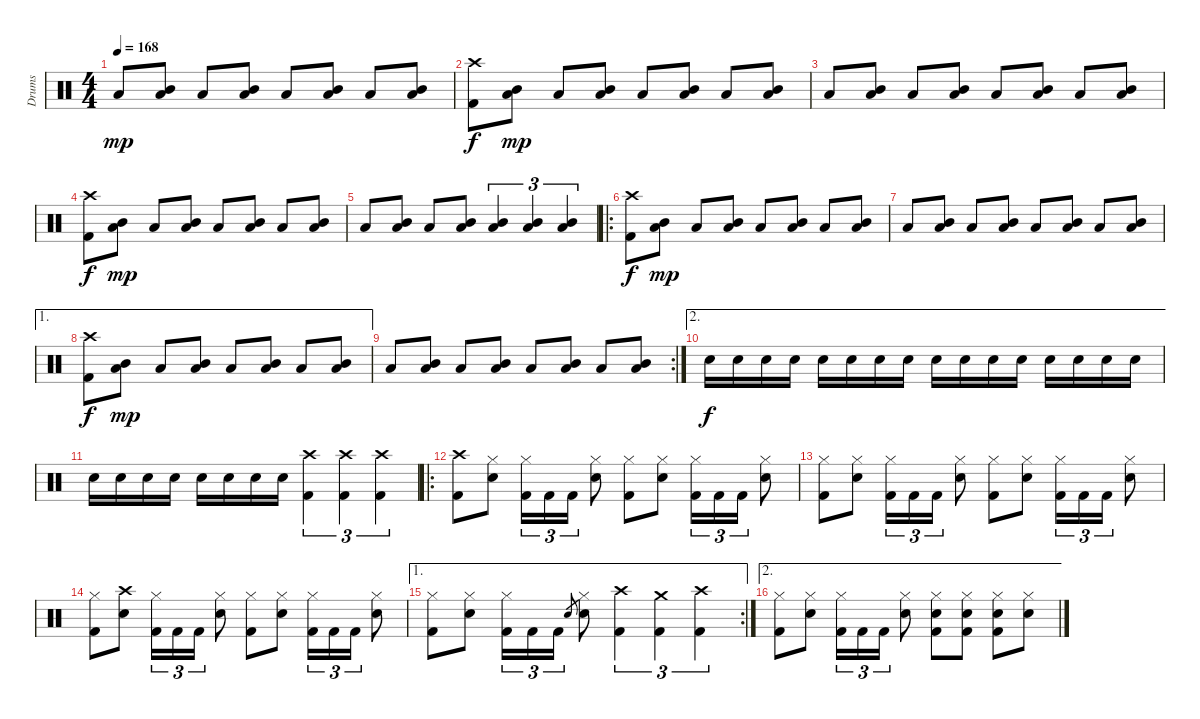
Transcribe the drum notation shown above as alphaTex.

\track ("Drums" "Drums") {instrument percussion}
\staff {score}
\articulation defaults
\ts (4 4)
\tempo 168
\clef neutral
\ks c "Low Tom (hit)".8{dy mp}
("Mid Tom (hit)" "Low Tom (hit)").8 "Low Tom (hit)".8 ("Mid Tom (hit)" "Low Tom (hit)").8 "Low Tom (hit)".8 ("Mid Tom (hit)" "Low Tom (hit)").8 "Low Tom (hit)".8 ("Mid Tom (hit)" "Low Tom (hit)").8 |
("Crash high (hit)" "Kick (hit) 2").8{dy f} ("Mid Tom (hit)" "Low Tom (hit)").8{dy mp} "Low Tom (hit)".8 ("Mid Tom (hit)" "Low Tom (hit)").8 "Low Tom (hit)".8 ("Mid Tom (hit)" "Low Tom (hit)").8 "Low Tom (hit)".8 ("Mid Tom (hit)" "Low Tom (hit)").8 |
"Low Tom (hit)".8 ("Mid Tom (hit)" "Low Tom (hit)").8 "Low Tom (hit)".8 ("Mid Tom (hit)" "Low Tom (hit)").8 "Low Tom (hit)".8 ("Mid Tom (hit)" "Low Tom (hit)").8 "Low Tom (hit)".8 ("Mid Tom (hit)" "Low Tom (hit)").8 |
("Crash high (hit)" "Kick (hit) 2").8{dy f} ("Mid Tom (hit)" "Low Tom (hit)").8{dy mp} "Low Tom (hit)".8 ("Mid Tom (hit)" "Low Tom (hit)").8 "Low Tom (hit)".8 ("Mid Tom (hit)" "Low Tom (hit)").8 "Low Tom (hit)".8 ("Mid Tom (hit)" "Low Tom (hit)").8 |
"Low Tom (hit)".8 ("Mid Tom (hit)" "Low Tom (hit)").8 "Low Tom (hit)".8 ("Mid Tom (hit)" "Low Tom (hit)").8 ("Mid Tom (hit)" "Low Tom (hit)").4{tu (3 2)} ("Mid Tom (hit)" "Low Tom (hit)").4{tu (3 2)} ("Mid Tom (hit)" "Low Tom (hit)").4{tu (3 2)} |
\ro
("Crash high (hit)" "Kick (hit) 2").8{dy f} ("Mid Tom (hit)" "Low Tom (hit)").8{dy mp} "Low Tom (hit)".8 ("Mid Tom (hit)" "Low Tom (hit)").8 "Low Tom (hit)".8 ("Mid Tom (hit)" "Low Tom (hit)").8 "Low Tom (hit)".8 ("Mid Tom (hit)" "Low Tom (hit)").8 |
"Low Tom (hit)".8 ("Mid Tom (hit)" "Low Tom (hit)").8 "Low Tom (hit)".8 ("Mid Tom (hit)" "Low Tom (hit)").8 "Low Tom (hit)".8 ("Mid Tom (hit)" "Low Tom (hit)").8 "Low Tom (hit)".8 ("Mid Tom (hit)" "Low Tom (hit)").8 |
\ae 1
("Crash high (hit)" "Kick (hit) 2").8{dy f} ("Mid Tom (hit)" "Low Tom (hit)").8{dy mp} "Low Tom (hit)".8 ("Mid Tom (hit)" "Low Tom (hit)").8 "Low Tom (hit)".8 ("Mid Tom (hit)" "Low Tom (hit)").8 "Low Tom (hit)".8 ("Mid Tom (hit)" "Low Tom (hit)").8 |
\rc 2 "Low Tom (hit)".8
("Mid Tom (hit)" "Low Tom (hit)").8 "Low Tom (hit)".8 ("Mid Tom (hit)" "Low Tom (hit)").8 "Low Tom (hit)".8 ("Mid Tom (hit)" "Low Tom (hit)").8 "Low Tom (hit)".8 ("Mid Tom (hit)" "Low Tom (hit)").8 |
\ae 2 "Snare (hit) 2".16{dy f} "Snare (hit) 2".16 "Snare (hit) 2".16 "Snare (hit) 2".16 "Snare (hit) 2".16 "Snare (hit) 2".16 "Snare (hit) 2".16 "Snare (hit) 2".16 "Snare (hit) 2".16 "Snare (hit) 2".16 "Snare (hit) 2".16 "Snare (hit) 2".16 "Snare (hit) 2".16 "Snare (hit) 2".16 "Snare (hit) 2".16 "Snare (hit) 2".16
|
"Snare (hit) 2".16 "Snare (hit) 2".16 "Snare (hit) 2".16 "Snare (hit) 2".16 "Snare (hit) 2".16 "Snare (hit) 2".16 "Snare (hit) 2".16 "Snare (hit) 2".16 ("Crash high (hit)" "Kick (hit) 2").4{tu (3 2)} ("Crash high (hit)" "Kick (hit) 2").4{tu (3 2)} ("Crash high (hit)" "Kick (hit) 2").4{tu (3 2)} |
\ro
("Crash high (hit)" "Kick (hit) 2").8 ("Hi-Hat (closed)" "Snare (hit) 2").8 ("Hi-Hat (closed)" "Kick (hit) 2").16{tu (3 2)} "Kick (hit) 2".16{tu (3 2)} "Kick (hit) 2".16{tu (3 2)} ("Hi-Hat (closed)" "Snare (hit) 2").8 ("Hi-Hat (closed)" "Kick (hit) 2").8 ("Hi-Hat (closed)" "Snare (hit) 2").8 ("Hi-Hat (closed)" "Kick (hit) 2").16{tu (3 2)} "Kick (hit) 2".16{tu (3 2)} "Kick (hit) 2".16{tu (3 2)} ("Hi-Hat (closed)" "Snare (hit) 2").8 |
("Hi-Hat (closed)" "Kick (hit) 2").8 ("Hi-Hat (closed)" "Snare (hit) 2").8 ("Hi-Hat (closed)" "Kick (hit) 2").16{tu (3 2)} "Kick (hit) 2".16{tu (3 2)} "Kick (hit) 2".16{tu (3 2)} ("Hi-Hat (closed)" "Snare (hit) 2").8 ("Hi-Hat (closed)" "Kick (hit) 2").8 ("Hi-Hat (closed)" "Snare (hit) 2").8 ("Hi-Hat (closed)" "Kick (hit) 2").16{tu (3 2)} "Kick (hit) 2".16{tu (3 2)} "Kick (hit) 2".16{tu (3 2)} ("Hi-Hat (closed)" "Snare (hit) 2").8 |
("Hi-Hat (closed)" "Kick (hit) 2").8 ("Crash high (hit)" "Snare (hit) 2").8 ("Hi-Hat (closed)" "Kick (hit) 2").16{tu (3 2)} "Kick (hit) 2".16{tu (3 2)} "Kick (hit) 2".16{tu (3 2)} ("Hi-Hat (closed)" "Snare (hit) 2").8 ("Hi-Hat (closed)" "Kick (hit) 2").8 ("Hi-Hat (closed)" "Snare (hit) 2").8 ("Hi-Hat (closed)" "Kick (hit) 2").16{tu (3 2)} "Kick (hit) 2".16{tu (3 2)} "Kick (hit) 2".16{tu (3 2)} ("Hi-Hat (closed)" "Snare (hit) 2").8 |
\ae 1
\rc 2
("Hi-Hat (closed)" "Kick (hit) 2").8 ("Hi-Hat (closed)" "Snare (hit) 2").8 ("Hi-Hat (closed)" "Kick (hit) 2").16{tu (3 2)} "Kick (hit) 2".16{tu (3 2)} "Kick (hit) 2".16{tu (3 2)} "Snare (hit) 2".8{gr} ("Hi-Hat (closed)" "Snare (hit) 2").8 ("Crash high (hit)" "Kick (hit) 2").4{tu (3 2)} ("Crash medium (hit)" "Kick (hit) 2").4{tu (3 2)} ("Crash high (hit)" "Kick (hit) 2").4{tu (3 2)} |
\ae 2
("Hi-Hat (closed)" "Kick (hit) 2").8 ("Hi-Hat (closed)" "Snare (hit) 2").8 ("Hi-Hat (closed)" "Kick (hit) 2").16{tu (3 2)} "Kick (hit) 2".16{tu (3 2)} "Kick (hit) 2".16{tu (3 2)} ("Hi-Hat (closed)" "Snare (hit) 2").8 ("Hi-Hat (closed)" "Snare (hit) 2" "Kick (hit) 2").8 ("Hi-Hat (closed)" "Snare (hit) 2" "Kick (hit) 2").8 ("Hi-Hat (closed)" "Snare (hit) 2" "Kick (hit) 2").8 ("Hi-Hat (closed)" "Snare (hit) 2").8
